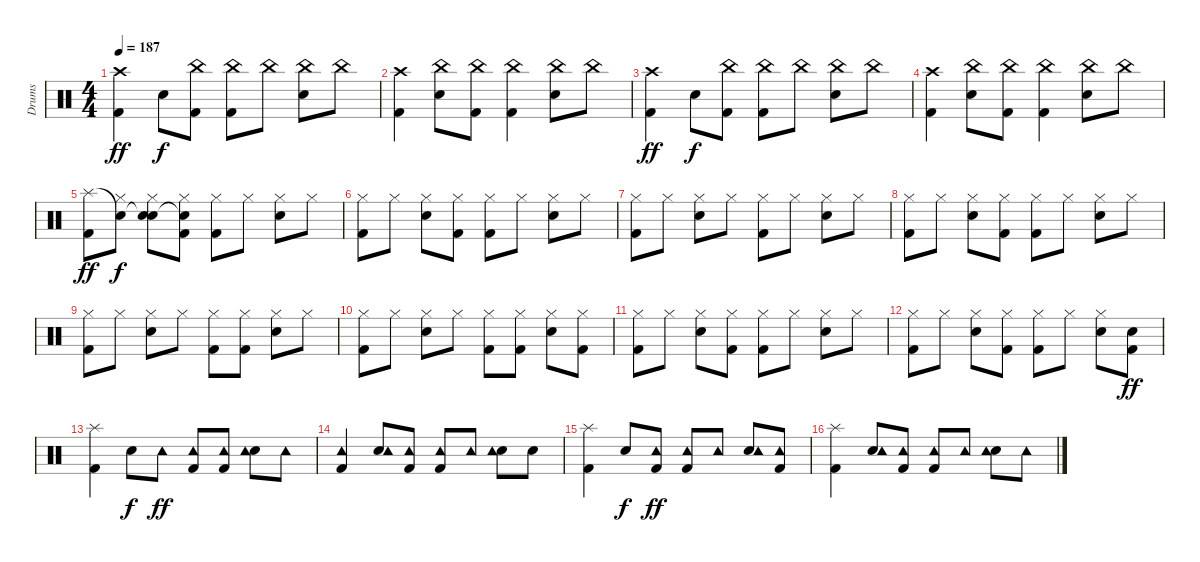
\track ("Drums" "Drums") {instrument percussion}
\staff {score}
\articulation defaults
\ts (4 4)
\tempo 187
\clef neutral
\ks c
("Kick (hit) 2" "Crash high (hit)").4{dy ff} "Snare (hit) 2".8{dy f} ("Kick (hit) 2" "China (hit)").8 ("Kick (hit) 2" "China (hit)").8 "China (hit)".8{bd 240} ("Snare (hit) 2" "China (hit)").8 "China (hit)".8{bd 240} |
("Kick (hit) 2" "Crash high (hit)").4 ("Snare (hit) 2" "China (hit)").8 ("Kick (hit) 2" "China (hit)").8{bd 240} ("Kick (hit) 2" "China (hit)").4 ("Snare (hit) 2" "China (hit)").8 "China (hit)".8 |
("Kick (hit) 2" "Crash high (hit)").4{dy ff} "Snare (hit) 2".8{dy f} ("Kick (hit) 2" "China (hit)").8 ("Kick (hit) 2" "China (hit)").8 "China (hit)".8{bd 240} ("Snare (hit) 2" "China (hit)").8 "China (hit)".8{bd 240} |
("Kick (hit) 2" "Crash high (hit)").4 ("Snare (hit) 2" "China (hit)").8 ("Kick (hit) 2" "China (hit)").8{bd 240} ("Kick (hit) 2" "China (hit)").4 ("Snare (hit) 2" "China (hit)").8 "China (hit)".8 |
("Splash (hit)" "Kick (hit) 2").8{dy ff} ("Snare (hit)"{t} "Hi-Hat (closed)").8{dy f} ("Snare (hit)"{t} "Snare (hit) 2" "Hi-Hat (closed)").8 ("Snare (hit)"{t} "Kick (hit) 2" "Hi-Hat (closed)").8 ("Kick (hit) 2" "Hi-Hat (closed)").8 "Hi-Hat (closed)".8 ("Snare (hit) 2" "Hi-Hat (closed)").8 "Hi-Hat (closed)".8 |
("Kick (hit) 2" "Hi-Hat (closed)").8 "Hi-Hat (closed)".8 ("Snare (hit) 2" "Hi-Hat (closed)").8 ("Kick (hit) 2" "Hi-Hat (closed)").8 ("Kick (hit) 2" "Hi-Hat (closed)").8 "Hi-Hat (closed)".8 ("Snare (hit) 2" "Hi-Hat (closed)").8 "Hi-Hat (closed)".8 |
("Kick (hit) 2" "Hi-Hat (closed)").8 "Hi-Hat (closed)".8 ("Snare (hit) 2" "Hi-Hat (closed)").8 "Hi-Hat (closed)".8 ("Kick (hit) 2" "Hi-Hat (closed)").8 "Hi-Hat (closed)".8 ("Snare (hit) 2" "Hi-Hat (closed)").8 "Hi-Hat (closed)".8 |
("Kick (hit) 2" "Hi-Hat (closed)").8 "Hi-Hat (closed)".8 ("Snare (hit) 2" "Hi-Hat (closed)").8 ("Kick (hit) 2" "Hi-Hat (closed)").8 ("Kick (hit) 2" "Hi-Hat (closed)").8 "Hi-Hat (closed)".8 ("Snare (hit) 2" "Hi-Hat (closed)").8 "Hi-Hat (closed)".8 |
("Kick (hit) 2" "Hi-Hat (closed)").8 "Hi-Hat (closed)".8 ("Snare (hit) 2" "Hi-Hat (closed)").8 "Hi-Hat (closed)".8 ("Kick (hit) 2" "Hi-Hat (closed)").8 ("Kick (hit) 2" "Hi-Hat (closed)").8 ("Snare (hit) 2" "Hi-Hat (closed)").8 "Hi-Hat (closed)".8 |
("Kick (hit) 2" "Hi-Hat (closed)").8 "Hi-Hat (closed)".8 ("Snare (hit) 2" "Hi-Hat (closed)").8 "Hi-Hat (closed)".8 ("Kick (hit) 2" "Hi-Hat (closed)").8 ("Kick (hit) 2" "Hi-Hat (closed)").8 ("Snare (hit) 2" "Hi-Hat (closed)").8 ("Kick (hit) 2" "Hi-Hat (closed)").8 |
("Kick (hit) 2" "Hi-Hat (closed)").8 "Hi-Hat (closed)".8 ("Snare (hit) 2" "Hi-Hat (closed)").8 ("Kick (hit) 2" "Hi-Hat (closed)").8 ("Kick (hit) 2" "Hi-Hat (closed)").8 "Hi-Hat (closed)".8 ("Snare (hit) 2" "Hi-Hat (closed)").8 "Hi-Hat (closed)".8 |
("Kick (hit) 2" "Hi-Hat (closed)").8 "Hi-Hat (closed)".8 ("Snare (hit) 2" "Hi-Hat (closed)").8 ("Kick (hit) 2" "Hi-Hat (closed)").8 ("Kick (hit) 2" "Hi-Hat (closed)").8 "Hi-Hat (closed)".8 ("Snare (hit) 2" "Hi-Hat (closed)").8 ("Kick (hit) 2" "Hand Clap (hit)").8{dy ff} |
("Kick (hit) 2" "Splash (hit)").4 "Snare (hit) 2".8{dy f} "Tambourine (hit)".8{dy ff} ("Kick (hit) 2" "Tambourine (hit)").8 ("Kick (hit) 2" "Tambourine (hit)").8 ("Snare (hit) 2" "Tambourine (hit)").8 "Tambourine (hit)".8 |
("Kick (hit) 2" "Tambourine (hit)").4 ("Snare (hit) 2" "Tambourine (hit)").8 ("Kick (hit) 2" "Tambourine (hit)").8 ("Kick (hit) 2" "Tambourine (hit)").8 "Tambourine (hit)".8 ("Snare (hit) 2" "Tambourine (hit)").8 "Hand Clap (hit)".8 |
("Kick (hit) 2" "Splash (hit)").4 "Snare (hit) 2".8{dy f} ("Kick (hit) 2" "Tambourine (hit)").8{dy ff} ("Kick (hit) 2" "Tambourine (hit)").8 "Tambourine (hit)".8 ("Snare (hit) 2" "Tambourine (hit)").8 ("Kick (hit) 2" "Tambourine (hit)").8 |
("Kick (hit) 2" "Splash (hit)").4 ("Snare (hit) 2" "Tambourine (hit)").8 ("Kick (hit) 2" "Tambourine (hit)").8 ("Kick (hit) 2" "Tambourine (hit)").8 "Tambourine (hit)".8 ("Snare (hit) 2" "Tambourine (hit)").8 "Tambourine (hit)".8
